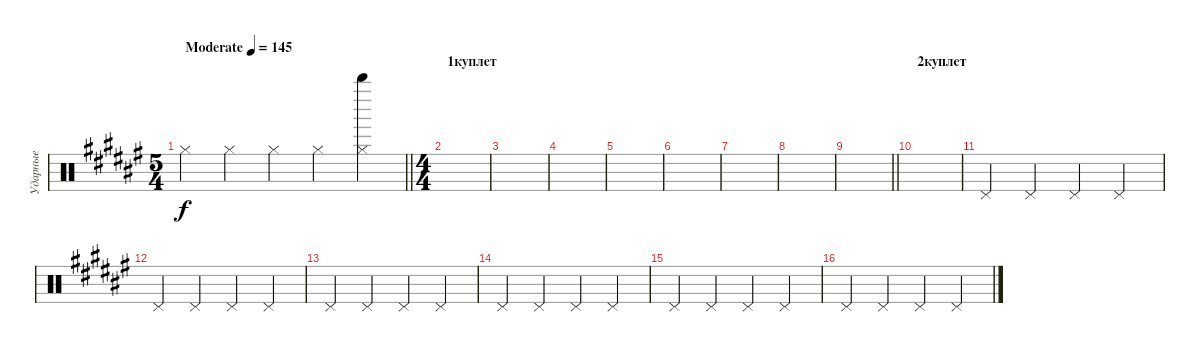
\track ("Ударные" "Ударные") {instrument percussion}
\staff {score}
\articulation defaults
\ts (5 4)
\tempo (145 "Moderate")
\clef neutral
\barLineRight lightlight
\ks f# "Hi-Hat (closed)".4{dy f} "Hi-Hat (closed)".4 "Hi-Hat (closed)".4 "Hi-Hat (closed)".4
("Hi-Hat (closed)" "Whistle high (hit)").4 |
\ts (4 4)
\section ("" "1куплет")
|
|
|
|
|
|
|
\barLineRight lightlight
|
\section ("" "2куплет")
|
"Pedal Hi-Hat (hit)".4 "Pedal Hi-Hat (hit)".4 "Pedal Hi-Hat (hit)".4 "Pedal Hi-Hat (hit)".4 |
"Pedal Hi-Hat (hit)".4 "Pedal Hi-Hat (hit)".4 "Pedal Hi-Hat (hit)".4 "Pedal Hi-Hat (hit)".4 |
"Pedal Hi-Hat (hit)".4 "Pedal Hi-Hat (hit)".4 "Pedal Hi-Hat (hit)".4 "Pedal Hi-Hat (hit)".4 |
"Pedal Hi-Hat (hit)".4 "Pedal Hi-Hat (hit)".4 "Pedal Hi-Hat (hit)".4 "Pedal Hi-Hat (hit)".4 |
"Pedal Hi-Hat (hit)".4 "Pedal Hi-Hat (hit)".4 "Pedal Hi-Hat (hit)".4 "Pedal Hi-Hat (hit)".4 |
"Pedal Hi-Hat (hit)".4 "Pedal Hi-Hat (hit)".4 "Pedal Hi-Hat (hit)".4 "Pedal Hi-Hat (hit)".4
